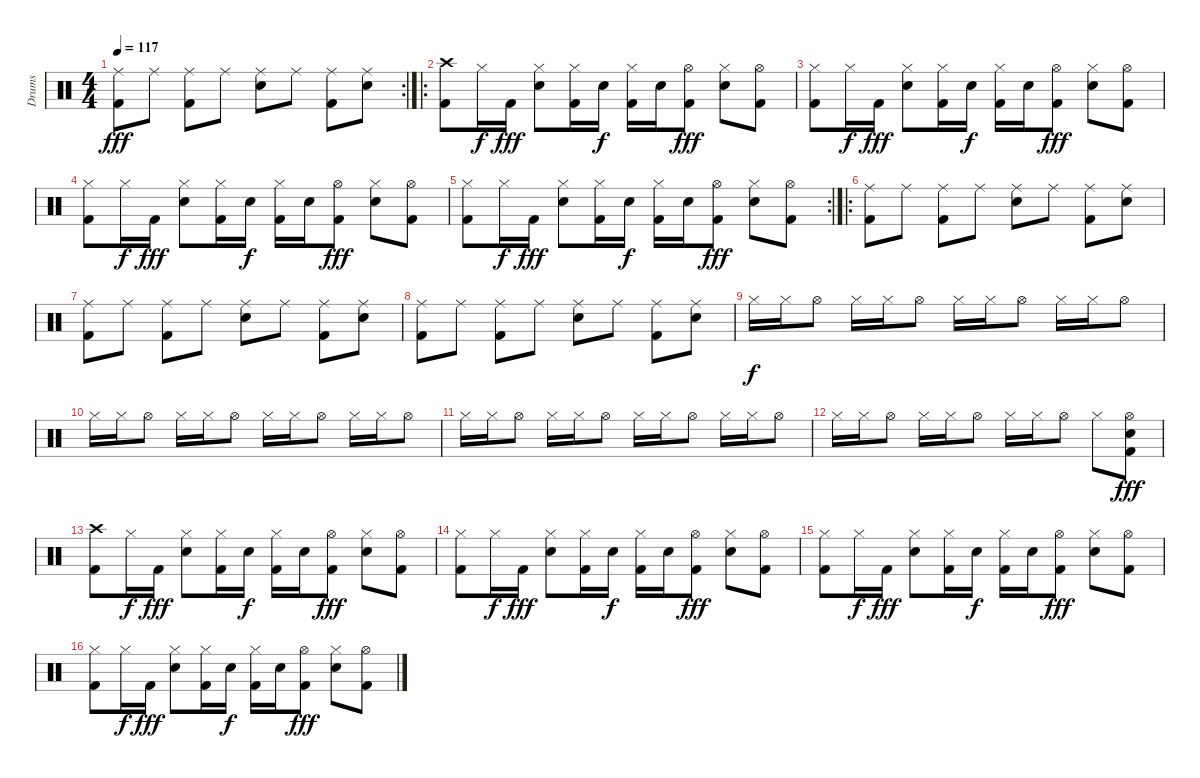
\track ("Drums" "Drums") {instrument percussion}
\staff {score}
\articulation defaults
\rc 2
\ts (4 4)
\tempo 117
\clef neutral
\ks c
("Ride (middle)" "Kick (hit) 2").8{dy fff} "Ride (middle)".8 ("Ride (middle)" "Kick (hit) 2").8 "Ride (middle)".8 ("Ride (middle)" "Snare (hit) 2").8 "Ride (middle)".8 ("Ride (middle)" "Kick (hit) 2").8 ("Ride (middle)" "Snare (hit) 2").8 |
\ro
("Crash high (hit)" "Kick (hit) 2").8 "Hi-Hat (closed)".16{dy f} "Kick (hit) 2".16{dy fff} ("Hi-Hat (closed)" "Snare (hit) 2").8 ("Hi-Hat (closed)" "Kick (hit) 2").16 "Snare (hit) 2".16{dy f} ("Hi-Hat (closed)" "Kick (hit) 2").16 "Snare (hit) 2".16 ("Hi-Hat (open)" "Kick (hit) 2").8{dy fff} ("Hi-Hat (closed)" "Snare (hit) 2").8 ("Hi-Hat (open)" "Kick (hit) 2").8 |
("Hi-Hat (closed)" "Kick (hit) 2").8 "Hi-Hat (closed)".16{dy f} "Kick (hit) 2".16{dy fff} ("Hi-Hat (closed)" "Snare (hit) 2").8 ("Hi-Hat (closed)" "Kick (hit) 2").16 "Snare (hit) 2".16{dy f} ("Hi-Hat (closed)" "Kick (hit) 2").16 "Snare (hit) 2".16 ("Hi-Hat (open)" "Kick (hit) 2").8{dy fff} ("Hi-Hat (closed)" "Snare (hit) 2").8 ("Hi-Hat (open)" "Kick (hit) 2").8 |
("Hi-Hat (closed)" "Kick (hit) 2").8 "Hi-Hat (closed)".16{dy f} "Kick (hit) 2".16{dy fff} ("Hi-Hat (closed)" "Snare (hit) 2").8 ("Hi-Hat (closed)" "Kick (hit) 2").16 "Snare (hit) 2".16{dy f} ("Hi-Hat (closed)" "Kick (hit) 2").16 "Snare (hit) 2".16 ("Hi-Hat (open)" "Kick (hit) 2").8{dy fff} ("Hi-Hat (closed)" "Snare (hit) 2").8 ("Hi-Hat (open)" "Kick (hit) 2").8 |
\rc 2
("Hi-Hat (closed)" "Kick (hit) 2").8 "Hi-Hat (closed)".16{dy f} "Kick (hit) 2".16{dy fff} ("Hi-Hat (closed)" "Snare (hit) 2").8 ("Hi-Hat (closed)" "Kick (hit) 2").16 "Snare (hit) 2".16{dy f} ("Hi-Hat (closed)" "Kick (hit) 2").16 "Snare (hit) 2".16 ("Hi-Hat (open)" "Kick (hit) 2").8{dy fff} ("Hi-Hat (closed)" "Snare (hit) 2").8 ("Hi-Hat (open)" "Kick (hit) 2").8 |
\ro
("Ride (middle)" "Kick (hit) 2").8 "Ride (middle)".8 ("Ride (middle)" "Kick (hit) 2").8 "Ride (middle)".8 ("Ride (middle)" "Snare (hit) 2").8 "Ride (middle)".8 ("Ride (middle)" "Kick (hit) 2").8 ("Ride (middle)" "Snare (hit) 2").8 |
("Ride (middle)" "Kick (hit) 2").8 "Ride (middle)".8 ("Ride (middle)" "Kick (hit) 2").8 "Ride (middle)".8 ("Ride (middle)" "Snare (hit) 2").8 "Ride (middle)".8 ("Ride (middle)" "Kick (hit) 2").8 ("Ride (middle)" "Snare (hit) 2").8 |
("Ride (middle)" "Kick (hit) 2").8 "Ride (middle)".8 ("Ride (middle)" "Kick (hit) 2").8 "Ride (middle)".8 ("Ride (middle)" "Snare (hit) 2").8 "Ride (middle)".8 ("Ride (middle)" "Kick (hit) 2").8 ("Ride (middle)" "Snare (hit) 2").8 |
"Hi-Hat (closed)".16{dy f} "Hi-Hat (closed)".16 "Hi-Hat (open)".8 "Hi-Hat (closed)".16 "Hi-Hat (closed)".16 "Hi-Hat (open)".8 "Hi-Hat (closed)".16 "Hi-Hat (closed)".16 "Hi-Hat (open)".8 "Hi-Hat (closed)".16 "Hi-Hat (closed)".16 "Hi-Hat (open)".8 |
"Hi-Hat (closed)".16 "Hi-Hat (closed)".16 "Hi-Hat (open)".8 "Hi-Hat (closed)".16 "Hi-Hat (closed)".16 "Hi-Hat (open)".8 "Hi-Hat (closed)".16 "Hi-Hat (closed)".16 "Hi-Hat (open)".8 "Hi-Hat (closed)".16 "Hi-Hat (closed)".16 "Hi-Hat (open)".8 |
"Hi-Hat (closed)".16 "Hi-Hat (closed)".16 "Hi-Hat (open)".8 "Hi-Hat (closed)".16 "Hi-Hat (closed)".16 "Hi-Hat (open)".8 "Hi-Hat (closed)".16 "Hi-Hat (closed)".16 "Hi-Hat (open)".8 "Hi-Hat (closed)".16 "Hi-Hat (closed)".16 "Hi-Hat (open)".8 |
"Hi-Hat (closed)".16 "Hi-Hat (closed)".16 "Hi-Hat (open)".8 "Hi-Hat (closed)".16 "Hi-Hat (closed)".16 "Hi-Hat (open)".8 "Hi-Hat (closed)".16 "Hi-Hat (closed)".16 "Hi-Hat (open)".8 "Hi-Hat (closed)".8 ("Hi-Hat (open)" "Snare (hit) 2" "Kick (hit) 2").8{dy fff} |
("Crash high (hit)" "Kick (hit) 2").8 "Hi-Hat (closed)".16{dy f} "Kick (hit) 2".16{dy fff} ("Hi-Hat (closed)" "Snare (hit) 2").8 ("Hi-Hat (closed)" "Kick (hit) 2").16 "Snare (hit) 2".16{dy f} ("Hi-Hat (closed)" "Kick (hit) 2").16 "Snare (hit) 2".16 ("Hi-Hat (open)" "Kick (hit) 2").8{dy fff} ("Hi-Hat (closed)" "Snare (hit) 2").8 ("Hi-Hat (open)" "Kick (hit) 2").8 |
("Hi-Hat (closed)" "Kick (hit) 2").8 "Hi-Hat (closed)".16{dy f} "Kick (hit) 2".16{dy fff} ("Hi-Hat (closed)" "Snare (hit) 2").8 ("Hi-Hat (closed)" "Kick (hit) 2").16 "Snare (hit) 2".16{dy f} ("Hi-Hat (closed)" "Kick (hit) 2").16 "Snare (hit) 2".16 ("Hi-Hat (open)" "Kick (hit) 2").8{dy fff} ("Hi-Hat (closed)" "Snare (hit) 2").8 ("Hi-Hat (open)" "Kick (hit) 2").8 |
("Hi-Hat (closed)" "Kick (hit) 2").8 "Hi-Hat (closed)".16{dy f} "Kick (hit) 2".16{dy fff} ("Hi-Hat (closed)" "Snare (hit) 2").8 ("Hi-Hat (closed)" "Kick (hit) 2").16 "Snare (hit) 2".16{dy f} ("Hi-Hat (closed)" "Kick (hit) 2").16 "Snare (hit) 2".16 ("Hi-Hat (open)" "Kick (hit) 2").8{dy fff} ("Hi-Hat (closed)" "Snare (hit) 2").8 ("Hi-Hat (open)" "Kick (hit) 2").8 |
("Hi-Hat (closed)" "Kick (hit) 2").8 "Hi-Hat (closed)".16{dy f} "Kick (hit) 2".16{dy fff} ("Hi-Hat (closed)" "Snare (hit) 2").8 ("Hi-Hat (closed)" "Kick (hit) 2").16 "Snare (hit) 2".16{dy f} ("Hi-Hat (closed)" "Kick (hit) 2").16 "Snare (hit) 2".16 ("Hi-Hat (open)" "Kick (hit) 2").8{dy fff} ("Hi-Hat (closed)" "Snare (hit) 2").8 ("Hi-Hat (open)" "Kick (hit) 2").8
